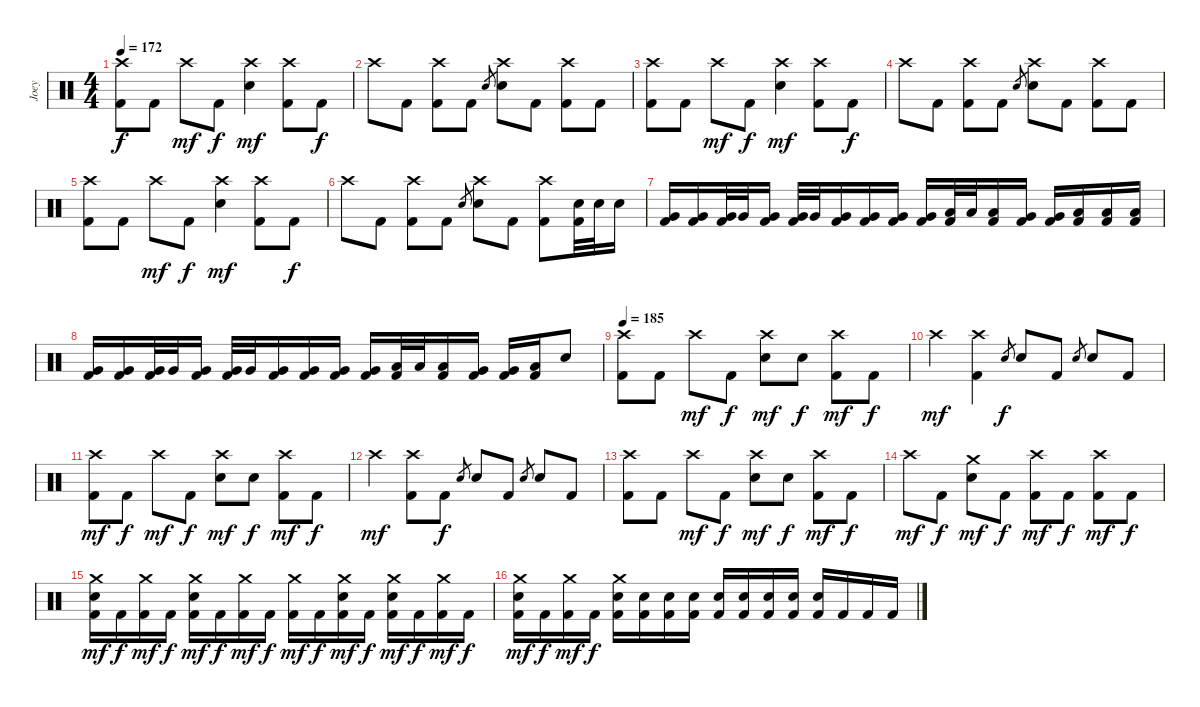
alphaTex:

\track ("Joey" "Joey") {instrument percussion}
\staff {score}
\articulation defaults
\ts (4 4)
\tempo 172
\clef neutral
\ks c
("Crash high (hit)" "Kick (hit) 2").8{dy f} "Kick (hit) 2".8 "Crash high (hit)".8{dy mf} "Kick (hit) 2".8{dy f} ("Crash high (hit)" "Electric Snare (hit)").4{dy mf} ("Crash high (hit)" "Kick (hit) 2").8 "Kick (hit) 2".8{dy f} |
"Crash high (hit)".8 "Kick (hit) 2".8 ("Crash high (hit)" "Kick (hit) 2").8 "Kick (hit) 2".8 "Electric Snare (hit)".8{gr} ("Crash high (hit)" "Electric Snare (hit)").8 "Kick (hit) 2".8 ("Crash high (hit)" "Kick (hit) 2").8 "Kick (hit) 2".8 |
("Crash high (hit)" "Kick (hit) 2").8 "Kick (hit) 2".8 "Crash high (hit)".8{dy mf} "Kick (hit) 2".8{dy f} ("Crash high (hit)" "Electric Snare (hit)").4{dy mf} ("Crash high (hit)" "Kick (hit) 2").8 "Kick (hit) 2".8{dy f} |
"Crash high (hit)".8 "Kick (hit) 2".8 ("Crash high (hit)" "Kick (hit) 2").8 "Kick (hit) 2".8 "Electric Snare (hit)".8{gr} ("Crash high (hit)" "Electric Snare (hit)").8 "Kick (hit) 2".8 ("Crash high (hit)" "Kick (hit) 2").8 "Kick (hit) 2".8 |
("Crash high (hit)" "Kick (hit) 2").8 "Kick (hit) 2".8 "Crash high (hit)".8{dy mf} "Kick (hit) 2".8{dy f} ("Crash high (hit)" "Electric Snare (hit)").4{dy mf} ("Crash high (hit)" "Kick (hit) 2").8 "Kick (hit) 2".8{dy f} |
"Crash high (hit)".8 "Kick (hit) 2".8 ("Crash high (hit)" "Kick (hit) 2").8 "Kick (hit) 2".8 "Electric Snare (hit)".8{gr} ("Crash high (hit)" "Electric Snare (hit)").8 "Kick (hit) 2".8 ("Crash high (hit)" "Kick (hit) 2").8 ("Electric Snare (hit)" "Kick (hit) 2").32 "Electric Snare (hit)".32 "Electric Snare (hit)".16 |
("Very Low Tom (hit)" "Kick (hit) 2").16 ("Very Low Tom (hit)" "Kick (hit) 2").16 ("Very Low Tom (hit)" "Kick (hit) 2").32 "Very Low Tom (hit)".32 ("Very Low Tom (hit)" "Kick (hit) 2").16 ("Very Low Tom (hit)" "Kick (hit) 2").32 "Very Low Tom (hit)".32 ("Very Low Tom (hit)" "Kick (hit) 2").16 ("Very Low Tom (hit)" "Kick (hit) 2").16 ("Very Low Tom (hit)" "Kick (hit) 2").16 ("Very Low Tom (hit)" "Kick (hit) 2").16 ("Low Floor Tom (hit)" "Kick (hit) 2").32 "Low Floor Tom (hit)".32 ("Low Floor Tom (hit)" "Kick (hit) 2").16 ("Very Low Tom (hit)" "Kick (hit) 2").16 ("Very Low Tom (hit)" "Kick (hit) 2").16 ("Low Floor Tom (hit)" "Kick (hit) 2").16 ("Low Floor Tom (hit)" "Kick (hit) 2").16 ("Low Floor Tom (hit)" "Kick (hit) 2").16 |
("Very Low Tom (hit)" "Kick (hit) 2").16 ("Very Low Tom (hit)" "Kick (hit) 2").16 ("Very Low Tom (hit)" "Kick (hit) 2").32 "Very Low Tom (hit)".32 ("Very Low Tom (hit)" "Kick (hit) 2").16 ("Very Low Tom (hit)" "Kick (hit) 2").32 "Very Low Tom (hit)".32 ("Very Low Tom (hit)" "Kick (hit) 2").16 ("Very Low Tom (hit)" "Kick (hit) 2").16 ("Very Low Tom (hit)" "Kick (hit) 2").16 ("Very Low Tom (hit)" "Kick (hit) 2").16 ("Low Floor Tom (hit)" "Kick (hit) 2").32 "Low Floor Tom (hit)".32 ("Low Floor Tom (hit)" "Kick (hit) 2").16 ("Very Low Tom (hit)" "Kick (hit) 2").16 ("Very Low Tom (hit)" "Kick (hit) 2").16 ("Low Floor Tom (hit)" "Kick (hit) 2").16 "Electric Snare (hit)".8 |
\tempo 185
("Crash high (hit)" "Kick (hit) 2").8 "Kick (hit) 2".8 "Crash high (hit)".8{dy mf} "Kick (hit) 2".8{dy f} ("Crash high (hit)" "Electric Snare (hit)").8{dy mf} "Electric Snare (hit)".8{dy f} ("Crash high (hit)" "Kick (hit) 2").8{dy mf} "Kick (hit) 2".8{dy f} |
"Crash high (hit)".4{dy mf} ("Crash high (hit)" "Kick (hit) 2").4 "Electric Snare (hit)".8{gr dy f} "Electric Snare (hit)".8 "Kick (hit) 2".8 "Electric Snare (hit)".8{gr} "Electric Snare (hit)".8 "Kick (hit) 2".8 |
("Crash high (hit)" "Kick (hit) 2").8{dy mf} "Kick (hit) 2".8{dy f} "Crash high (hit)".8{dy mf} "Kick (hit) 2".8{dy f} ("Crash high (hit)" "Electric Snare (hit)").8{dy mf} "Electric Snare (hit)".8{dy f} ("Crash high (hit)" "Kick (hit) 2").8{dy mf} "Kick (hit) 2".8{dy f} |
"Crash high (hit)".4{dy mf} ("Crash high (hit)" "Kick (hit) 2").8 "Kick (hit) 2".8{dy f} "Electric Snare (hit)".8{gr} "Electric Snare (hit)".8 "Kick (hit) 2".8 "Electric Snare (hit)".8{gr} "Electric Snare (hit)".8 "Kick (hit) 2".8 |
("Crash high (hit)" "Kick (hit) 2").8 "Kick (hit) 2".8 "Crash high (hit)".8{dy mf} "Kick (hit) 2".8{dy f} ("Crash high (hit)" "Electric Snare (hit)").8{dy mf} "Electric Snare (hit)".8{dy f} ("Crash high (hit)" "Kick (hit) 2").8{dy mf} "Kick (hit) 2".8{dy f} |
"Crash high (hit)".8{dy mf} "Kick (hit) 2".8{dy f} ("Crash medium (hit)" "Electric Snare (hit)").8{dy mf} "Kick (hit) 2".8{dy f} ("Crash high (hit)" "Kick (hit) 2").8{dy mf} "Kick (hit) 2".8{dy f} ("Crash high (hit)" "Kick (hit) 2").8{dy mf} "Kick (hit) 2".8{dy f} |
("Crash medium (hit)" "Electric Snare (hit)" "Kick (hit) 2").16{dy mf} "Kick (hit) 2".16{dy f} ("Crash medium (hit)" "Kick (hit) 2").16{dy mf} "Kick (hit) 2".16{dy f} ("Crash medium (hit)" "Electric Snare (hit)" "Kick (hit) 2").16{dy mf} "Kick (hit) 2".16{dy f} ("Crash medium (hit)" "Kick (hit) 2").16{dy mf} "Kick (hit) 2".16{dy f} ("Crash medium (hit)" "Kick (hit) 2").16{dy mf} "Kick (hit) 2".16{dy f} ("Crash medium (hit)" "Electric Snare (hit)" "Kick (hit) 2").16{dy mf} "Kick (hit) 2".16{dy f} ("Crash medium (hit)" "Electric Snare (hit)" "Kick (hit) 2").16{dy mf} "Kick (hit) 2".16{dy f} ("Crash medium (hit)" "Kick (hit) 2").16{dy mf} "Kick (hit) 2".16{dy f} |
("Crash medium (hit)" "Electric Snare (hit)" "Kick (hit) 2").16{dy mf} "Kick (hit) 2".16{dy f} ("Crash medium (hit)" "Kick (hit) 2").16{dy mf} "Kick (hit) 2".16{dy f} ("Crash medium (hit)" "Electric Snare (hit)" "Kick (hit) 2").16 ("Electric Snare (hit)" "Kick (hit) 2").16 ("Electric Snare (hit)" "Kick (hit) 2").16 ("Electric Snare (hit)" "Kick (hit) 2").16 ("Electric Snare (hit)" "Kick (hit) 2").16 ("Electric Snare (hit)" "Kick (hit) 2").16 ("Electric Snare (hit)" "Kick (hit) 2").16 ("Electric Snare (hit)" "Kick (hit) 2").16 ("Electric Snare (hit)" "Kick (hit) 2").16 "Kick (hit) 2".16 "Kick (hit) 2".16 "Kick (hit) 2".16
